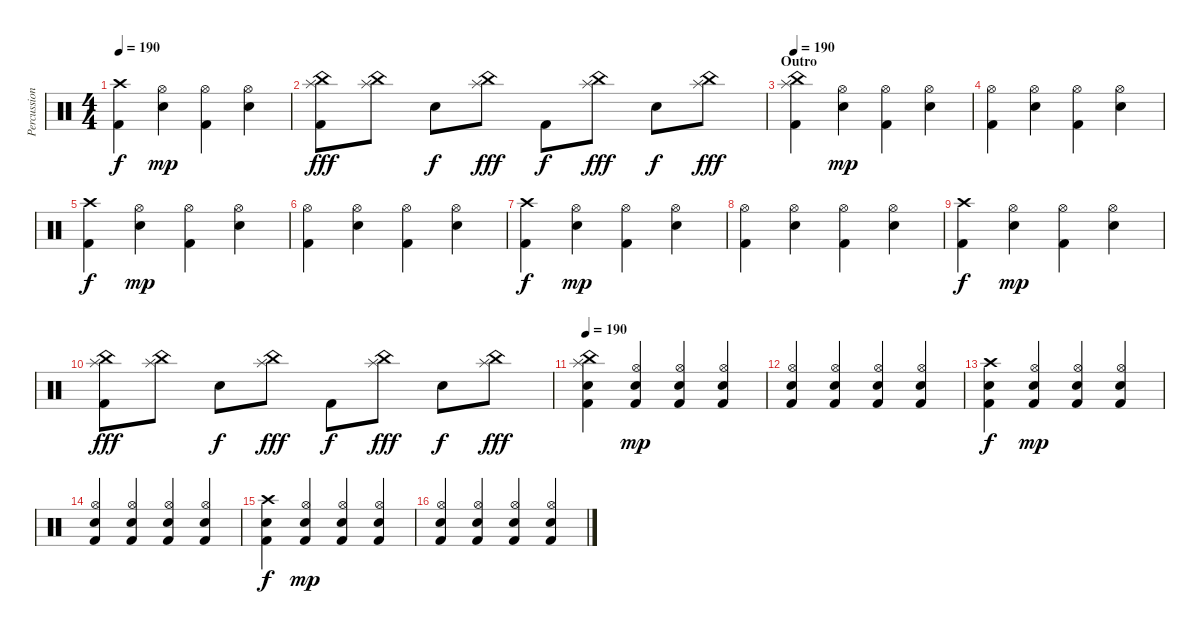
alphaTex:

\track ("Percussion" "Percussion") {instrument percussion}
\staff {score}
\articulation defaults
\ts (4 4)
\tempo 190
\clef neutral
\ks c
("Crash high (hit)" "Kick (hit) 2").4{dy f} ("Hi-Hat (open)" "Electric Snare (hit)").4{dy mp} ("Hi-Hat (open)" "Kick (hit) 2").4 ("Hi-Hat (open)" "Electric Snare (hit)").4 |
("China (hit)" "Splash (hit)" "Kick (hit) 2").8{dy fff} ("China (hit)" "Splash (hit)").8 "Electric Snare (hit)".8{dy f} ("China (hit)" "Splash (hit)").8{dy fff} "Kick (hit) 2".8{dy f} ("China (hit)" "Splash (hit)").8{dy fff} "Electric Snare (hit)".8{dy f} ("China (hit)" "Splash (hit)").8{dy fff} |
\section ("" "Outro")
\tempo 190
("China (hit)" "Splash (hit)" "Kick (hit) 2").4 ("Hi-Hat (open)" "Electric Snare (hit)").4{dy mp} ("Hi-Hat (open)" "Kick (hit) 2").4 ("Hi-Hat (open)" "Electric Snare (hit)").4 |
("Hi-Hat (open)" "Kick (hit) 2").4 ("Hi-Hat (open)" "Electric Snare (hit)").4 ("Hi-Hat (open)" "Kick (hit) 2").4 ("Hi-Hat (open)" "Electric Snare (hit)").4 |
("Crash high (hit)" "Kick (hit) 2").4{dy f} ("Hi-Hat (open)" "Electric Snare (hit)").4{dy mp} ("Hi-Hat (open)" "Kick (hit) 2").4 ("Hi-Hat (open)" "Electric Snare (hit)").4 |
("Hi-Hat (open)" "Kick (hit) 2").4 ("Hi-Hat (open)" "Electric Snare (hit)").4 ("Hi-Hat (open)" "Kick (hit) 2").4 ("Hi-Hat (open)" "Electric Snare (hit)").4 |
("Crash high (hit)" "Kick (hit) 2").4{dy f} ("Hi-Hat (open)" "Electric Snare (hit)").4{dy mp} ("Hi-Hat (open)" "Kick (hit) 2").4 ("Hi-Hat (open)" "Electric Snare (hit)").4 |
("Hi-Hat (open)" "Kick (hit) 2").4 ("Hi-Hat (open)" "Electric Snare (hit)").4 ("Hi-Hat (open)" "Kick (hit) 2").4 ("Hi-Hat (open)" "Electric Snare (hit)").4 |
("Crash high (hit)" "Kick (hit) 2").4{dy f} ("Hi-Hat (open)" "Electric Snare (hit)").4{dy mp} ("Hi-Hat (open)" "Kick (hit) 2").4 ("Hi-Hat (open)" "Electric Snare (hit)").4 |
("China (hit)" "Splash (hit)" "Kick (hit) 2").8{dy fff} ("China (hit)" "Splash (hit)").8 "Electric Snare (hit)".8{dy f} ("China (hit)" "Splash (hit)").8{dy fff} "Kick (hit) 2".8{dy f} ("China (hit)" "Splash (hit)").8{dy fff} "Electric Snare (hit)".8{dy f} ("China (hit)" "Splash (hit)").8{dy fff} |
\tempo 190
("China (hit)" "Splash (hit)" "Electric Snare (hit)" "Kick (hit) 2").4 ("Hi-Hat (open)" "Electric Snare (hit)" "Kick (hit) 2").4{dy mp} ("Hi-Hat (open)" "Electric Snare (hit)" "Kick (hit) 2").4 ("Hi-Hat (open)" "Electric Snare (hit)" "Kick (hit) 2").4 |
("Hi-Hat (open)" "Electric Snare (hit)" "Kick (hit) 2").4 ("Hi-Hat (open)" "Electric Snare (hit)" "Kick (hit) 2").4 ("Hi-Hat (open)" "Electric Snare (hit)" "Kick (hit) 2").4 ("Hi-Hat (open)" "Electric Snare (hit)" "Kick (hit) 2").4 |
("Crash high (hit)" "Electric Snare (hit)" "Kick (hit) 2").4{dy f} ("Hi-Hat (open)" "Electric Snare (hit)" "Kick (hit) 2").4{dy mp} ("Hi-Hat (open)" "Electric Snare (hit)" "Kick (hit) 2").4 ("Hi-Hat (open)" "Electric Snare (hit)" "Kick (hit) 2").4 |
("Hi-Hat (open)" "Electric Snare (hit)" "Kick (hit) 2").4 ("Hi-Hat (open)" "Electric Snare (hit)" "Kick (hit) 2").4 ("Hi-Hat (open)" "Electric Snare (hit)" "Kick (hit) 2").4 ("Hi-Hat (open)" "Electric Snare (hit)" "Kick (hit) 2").4 |
("Crash high (hit)" "Electric Snare (hit)" "Kick (hit) 2").4{dy f} ("Hi-Hat (open)" "Electric Snare (hit)" "Kick (hit) 2").4{dy mp} ("Hi-Hat (open)" "Electric Snare (hit)" "Kick (hit) 2").4 ("Hi-Hat (open)" "Electric Snare (hit)" "Kick (hit) 2").4 |
("Hi-Hat (open)" "Electric Snare (hit)" "Kick (hit) 2").4 ("Hi-Hat (open)" "Electric Snare (hit)" "Kick (hit) 2").4 ("Hi-Hat (open)" "Electric Snare (hit)" "Kick (hit) 2").4 ("Hi-Hat (open)" "Electric Snare (hit)" "Kick (hit) 2").4
